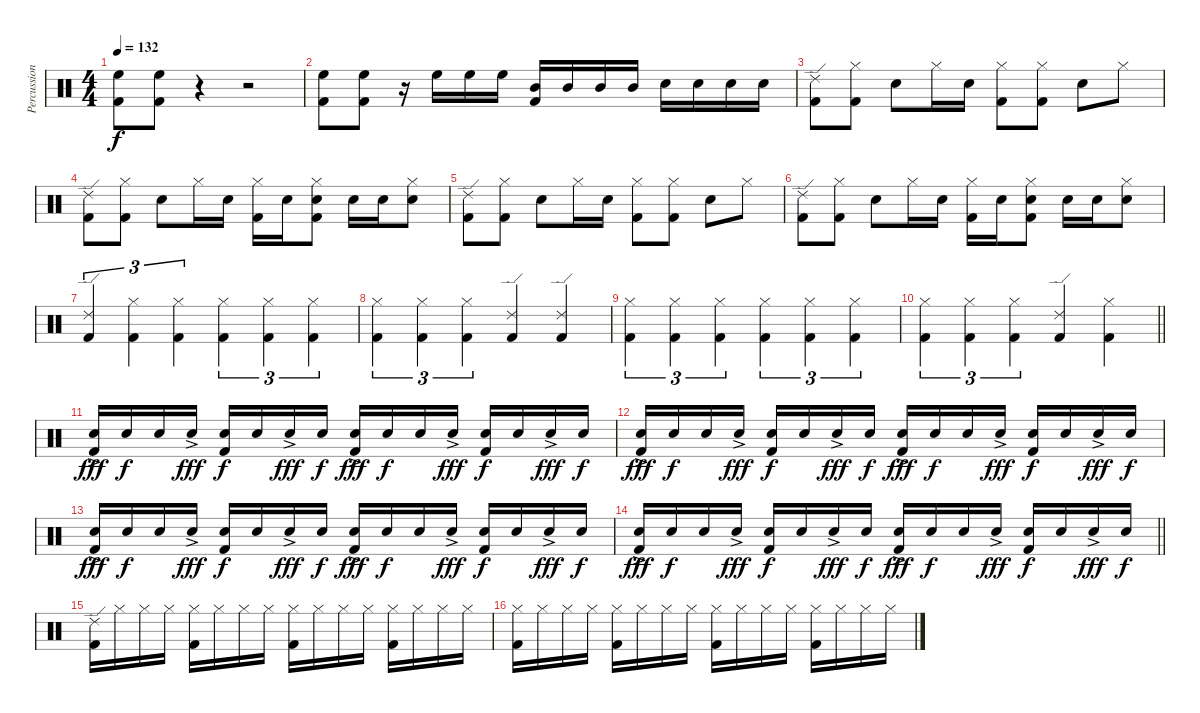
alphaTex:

\track ("Percussions" "Percussion") {instrument percussion}
\staff {score}
\articulation defaults
\ts (4 4)
\tempo 132
\clef neutral
\ks c
("High Floor Tom (hit)" "Kick (hit) 2").8{dy f} ("High Floor Tom (hit)" "Kick (hit) 2").8 r.4 r.2 |
("High Floor Tom (hit)" "Kick (hit) 2").8 ("High Floor Tom (hit)" "Kick (hit) 2").8 r.16 "High Floor Tom (hit)".16 "High Floor Tom (hit)".16 "High Floor Tom (hit)".16 ("Mid Tom (hit)" "Kick (hit) 2").16 "Mid Tom (hit)".16 "Mid Tom (hit)".16 "Mid Tom (hit)".16 "Snare (hit) 2".16 "Snare (hit) 2".16 "Snare (hit) 2".16 "Snare (hit) 2".16 |
("Ride (edge) 2" "Kick (hit) 2").8 ("Hi-Hat (closed)" "Kick (hit) 2").8 "Snare (hit) 2".8 "Hi-Hat (closed)".16 "Snare (hit) 2".16 ("Hi-Hat (closed)" "Kick (hit) 2").8 ("Hi-Hat (closed)" "Kick (hit) 2").8 "Snare (hit) 2".8 "Hi-Hat (closed)".8 |
("Ride (edge) 2" "Kick (hit) 2").8 ("Hi-Hat (closed)" "Kick (hit) 2").8 "Snare (hit) 2".8 "Hi-Hat (closed)".16 "Snare (hit) 2".16 ("Hi-Hat (closed)" "Kick (hit) 2").16 "Snare (hit) 2".16 ("Hi-Hat (closed)" "Snare (hit) 2" "Kick (hit) 2").8 "Snare (hit) 2".16 "Snare (hit) 2".16 ("Hi-Hat (closed)" "Snare (hit) 2").8 |
("Ride (edge) 2" "Kick (hit) 2").8 ("Hi-Hat (closed)" "Kick (hit) 2").8 "Snare (hit) 2".8 "Hi-Hat (closed)".16 "Snare (hit) 2".16 ("Hi-Hat (closed)" "Kick (hit) 2").8 ("Hi-Hat (closed)" "Kick (hit) 2").8 "Snare (hit) 2".8 "Hi-Hat (closed)".8 |
("Ride (edge) 2" "Kick (hit) 2").8 ("Hi-Hat (closed)" "Kick (hit) 2").8 "Snare (hit) 2".8 "Hi-Hat (closed)".16 "Snare (hit) 2".16 ("Hi-Hat (closed)" "Kick (hit) 2").16 "Snare (hit) 2".16 ("Hi-Hat (closed)" "Snare (hit) 2" "Kick (hit) 2").8 "Snare (hit) 2".16 "Snare (hit) 2".16 ("Hi-Hat (closed)" "Snare (hit) 2").8 |
("Ride (edge) 2" "Kick (hit) 2").4{tu (3 2)} ("Hi-Hat (closed)" "Kick (hit) 2").4{tu (3 2)} ("Hi-Hat (closed)" "Kick (hit) 2").4{tu (3 2)} ("Hi-Hat (closed)" "Kick (hit) 2").4{tu (3 2)} ("Hi-Hat (closed)" "Kick (hit) 2").4{tu (3 2)} ("Hi-Hat (closed)" "Kick (hit) 2").4{tu (3 2)} |
("Hi-Hat (closed)" "Kick (hit) 2").4{tu (3 2)} ("Hi-Hat (closed)" "Kick (hit) 2").4{tu (3 2)} ("Hi-Hat (closed)" "Kick (hit) 2").4{tu (3 2)} ("Ride (edge) 2" "Kick (hit) 2").4 ("Ride (edge) 2" "Kick (hit) 2").4 |
("Hi-Hat (closed)" "Kick (hit) 2").4{tu (3 2)} ("Hi-Hat (closed)" "Kick (hit) 2").4{tu (3 2)} ("Hi-Hat (closed)" "Kick (hit) 2").4{tu (3 2)} ("Hi-Hat (closed)" "Kick (hit) 2").4{tu (3 2)} ("Hi-Hat (closed)" "Kick (hit) 2").4{tu (3 2)} ("Hi-Hat (closed)" "Kick (hit) 2").4{tu (3 2)} |
\barLineRight lightlight
("Hi-Hat (closed)" "Kick (hit) 2").4{tu (3 2)} ("Hi-Hat (closed)" "Kick (hit) 2").4{tu (3 2)} ("Hi-Hat (closed)" "Kick (hit) 2").4{tu (3 2)} ("Ride (edge) 2" "Kick (hit) 2").4 ("Hi-Hat (closed)" "Kick (hit) 2").4 |
("Snare (hit) 2"{ac} "Kick (hit) 2").16{dy fff} "Snare (hit) 2".16{dy f} "Snare (hit) 2".16 "Snare (hit) 2"{ac}.16{dy fff} ("Snare (hit) 2" "Kick (hit) 2").16{dy f} "Snare (hit) 2".16 "Snare (hit) 2"{ac}.16{dy fff} "Snare (hit) 2".16{dy f} ("Snare (hit) 2"{ac} "Kick (hit) 2").16{dy fff} "Snare (hit) 2".16{dy f} "Snare (hit) 2".16 "Snare (hit) 2"{ac}.16{dy fff} ("Snare (hit) 2" "Kick (hit) 2").16{dy f} "Snare (hit) 2".16 "Snare (hit) 2"{ac}.16{dy fff} "Snare (hit) 2".16{dy f} |
("Snare (hit) 2"{ac} "Kick (hit) 2").16{dy fff} "Snare (hit) 2".16{dy f} "Snare (hit) 2".16 "Snare (hit) 2"{ac}.16{dy fff} ("Snare (hit) 2" "Kick (hit) 2").16{dy f} "Snare (hit) 2".16 "Snare (hit) 2"{ac}.16{dy fff} "Snare (hit) 2".16{dy f} ("Snare (hit) 2"{ac} "Kick (hit) 2").16{dy fff} "Snare (hit) 2".16{dy f} "Snare (hit) 2".16 "Snare (hit) 2"{ac}.16{dy fff} ("Snare (hit) 2" "Kick (hit) 2").16{dy f} "Snare (hit) 2".16 "Snare (hit) 2"{ac}.16{dy fff} "Snare (hit) 2".16{dy f} |
("Snare (hit) 2"{ac} "Kick (hit) 2").16{dy fff} "Snare (hit) 2".16{dy f} "Snare (hit) 2".16 "Snare (hit) 2"{ac}.16{dy fff} ("Snare (hit) 2" "Kick (hit) 2").16{dy f} "Snare (hit) 2".16 "Snare (hit) 2"{ac}.16{dy fff} "Snare (hit) 2".16{dy f} ("Snare (hit) 2"{ac} "Kick (hit) 2").16{dy fff} "Snare (hit) 2".16{dy f} "Snare (hit) 2".16 "Snare (hit) 2"{ac}.16{dy fff} ("Snare (hit) 2" "Kick (hit) 2").16{dy f} "Snare (hit) 2".16 "Snare (hit) 2"{ac}.16{dy fff} "Snare (hit) 2".16{dy f} |
\barLineRight lightlight
("Snare (hit) 2"{ac} "Kick (hit) 2").16{dy fff} "Snare (hit) 2".16{dy f} "Snare (hit) 2".16 "Snare (hit) 2"{ac}.16{dy fff} ("Snare (hit) 2" "Kick (hit) 2").16{dy f} "Snare (hit) 2".16 "Snare (hit) 2"{ac}.16{dy fff} "Snare (hit) 2".16{dy f} ("Snare (hit) 2"{ac} "Kick (hit) 2").16{dy fff} "Snare (hit) 2".16{dy f} "Snare (hit) 2".16 "Snare (hit) 2"{ac}.16{dy fff} ("Snare (hit) 2" "Kick (hit) 2").16{dy f} "Snare (hit) 2".16 "Snare (hit) 2"{ac}.16{dy fff} "Snare (hit) 2".16{dy f} |
("Ride (edge) 2" "Kick (hit) 2").16 "Hi-Hat (closed)".16 "Hi-Hat (closed)".16 "Hi-Hat (closed)".16 ("Hi-Hat (closed)" "Kick (hit) 2").16 "Hi-Hat (closed)".16 "Hi-Hat (closed)".16 "Hi-Hat (closed)".16 ("Hi-Hat (closed)" "Kick (hit) 2").16 "Hi-Hat (closed)".16 "Hi-Hat (closed)".16 "Hi-Hat (closed)".16 ("Hi-Hat (closed)" "Kick (hit) 2").16 "Hi-Hat (closed)".16 "Hi-Hat (closed)".16 "Hi-Hat (closed)".16 |
("Hi-Hat (closed)" "Kick (hit) 2").16 "Hi-Hat (closed)".16 "Hi-Hat (closed)".16 "Hi-Hat (closed)".16 ("Hi-Hat (closed)" "Kick (hit) 2").16 "Hi-Hat (closed)".16 "Hi-Hat (closed)".16 "Hi-Hat (closed)".16 ("Hi-Hat (closed)" "Kick (hit) 2").16 "Hi-Hat (closed)".16 "Hi-Hat (closed)".16 "Hi-Hat (closed)".16 ("Hi-Hat (closed)" "Kick (hit) 2").16 "Hi-Hat (closed)".16 "Hi-Hat (closed)".16 "Hi-Hat (closed)".16
